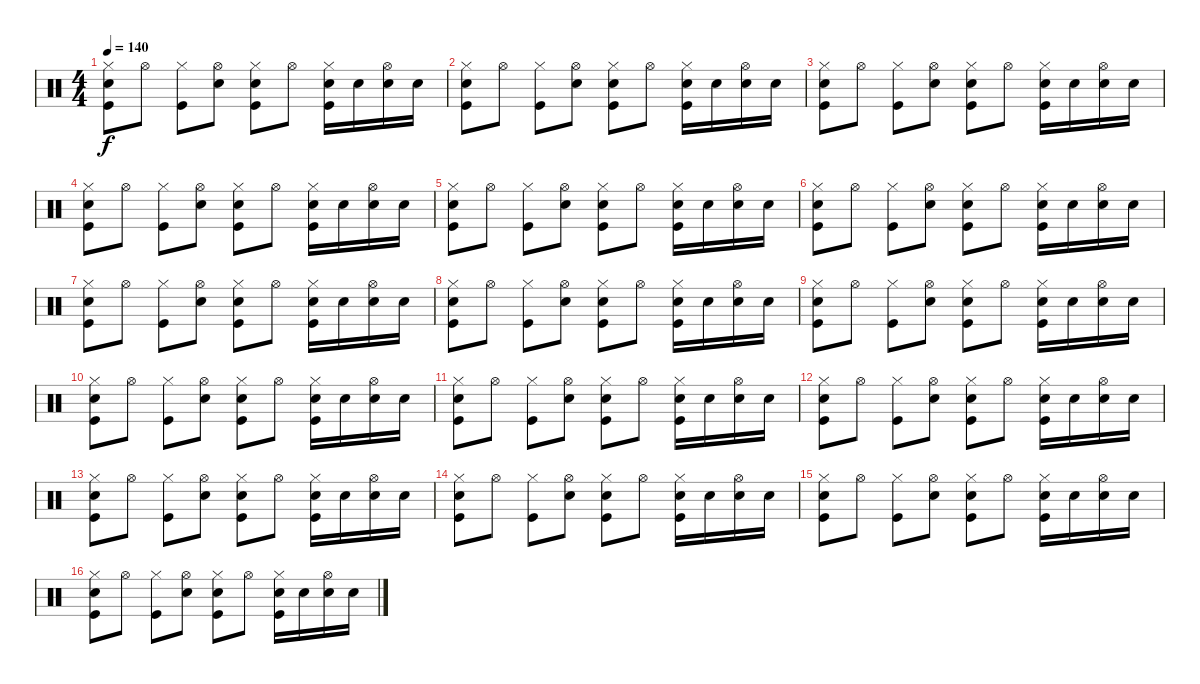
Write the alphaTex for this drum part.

\track "" {instrument percussion}
\staff {score}
\articulation defaults
\ts (4 4)
\tempo 140
\clef neutral
\ks c
("Snare (hit) 2" "Hi-Hat (closed)" "Kick (hit)").8{dy f} "Hi-Hat (open)".8 ("Hi-Hat (closed)" "Kick (hit)").8 ("Snare (hit) 2" "Hi-Hat (open)").8 ("Snare (hit) 2" "Hi-Hat (closed)" "Kick (hit)").8 "Hi-Hat (open)".8 ("Snare (hit) 2" "Hi-Hat (closed)" "Kick (hit)").16 "Snare (hit) 2".16 ("Snare (hit) 2" "Hi-Hat (open)").16 "Snare (hit) 2".16 |
("Snare (hit) 2" "Hi-Hat (closed)" "Kick (hit)").8 "Hi-Hat (open)".8 ("Hi-Hat (closed)" "Kick (hit)").8 ("Snare (hit) 2" "Hi-Hat (open)").8 ("Snare (hit) 2" "Hi-Hat (closed)" "Kick (hit)").8 "Hi-Hat (open)".8 ("Snare (hit) 2" "Hi-Hat (closed)" "Kick (hit)").16 "Snare (hit) 2".16 ("Snare (hit) 2" "Hi-Hat (open)").16 "Snare (hit) 2".16 |
("Snare (hit) 2" "Hi-Hat (closed)" "Kick (hit)").8 "Hi-Hat (open)".8 ("Hi-Hat (closed)" "Kick (hit)").8 ("Snare (hit) 2" "Hi-Hat (open)").8 ("Snare (hit) 2" "Hi-Hat (closed)" "Kick (hit)").8 "Hi-Hat (open)".8 ("Snare (hit) 2" "Hi-Hat (closed)" "Kick (hit)").16 "Snare (hit) 2".16 ("Snare (hit) 2" "Hi-Hat (open)").16 "Snare (hit) 2".16 |
("Snare (hit) 2" "Hi-Hat (closed)" "Kick (hit)").8 "Hi-Hat (open)".8 ("Hi-Hat (closed)" "Kick (hit)").8 ("Snare (hit) 2" "Hi-Hat (open)").8 ("Snare (hit) 2" "Hi-Hat (closed)" "Kick (hit)").8 "Hi-Hat (open)".8 ("Snare (hit) 2" "Hi-Hat (closed)" "Kick (hit)").16 "Snare (hit) 2".16 ("Snare (hit) 2" "Hi-Hat (open)").16 "Snare (hit) 2".16 |
("Snare (hit) 2" "Hi-Hat (closed)" "Kick (hit)").8 "Hi-Hat (open)".8 ("Hi-Hat (closed)" "Kick (hit)").8 ("Snare (hit) 2" "Hi-Hat (open)").8 ("Snare (hit) 2" "Hi-Hat (closed)" "Kick (hit)").8 "Hi-Hat (open)".8 ("Snare (hit) 2" "Hi-Hat (closed)" "Kick (hit)").16 "Snare (hit) 2".16 ("Snare (hit) 2" "Hi-Hat (open)").16 "Snare (hit) 2".16 |
("Snare (hit) 2" "Hi-Hat (closed)" "Kick (hit)").8 "Hi-Hat (open)".8 ("Hi-Hat (closed)" "Kick (hit)").8 ("Snare (hit) 2" "Hi-Hat (open)").8 ("Snare (hit) 2" "Hi-Hat (closed)" "Kick (hit)").8 "Hi-Hat (open)".8 ("Snare (hit) 2" "Hi-Hat (closed)" "Kick (hit)").16 "Snare (hit) 2".16 ("Snare (hit) 2" "Hi-Hat (open)").16 "Snare (hit) 2".16 |
("Hi-Hat (closed)" "Kick (hit)" "Snare (hit) 2").8 "Hi-Hat (open)".8 ("Hi-Hat (closed)" "Kick (hit)").8 ("Hi-Hat (open)" "Snare (hit) 2").8 ("Hi-Hat (closed)" "Kick (hit)" "Snare (hit) 2").8 "Hi-Hat (open)".8 ("Hi-Hat (closed)" "Kick (hit)" "Snare (hit) 2").16 "Snare (hit) 2".16 ("Hi-Hat (open)" "Snare (hit) 2").16 "Snare (hit) 2".16 |
("Hi-Hat (closed)" "Kick (hit)" "Snare (hit) 2").8 "Hi-Hat (open)".8 ("Hi-Hat (closed)" "Kick (hit)").8 ("Hi-Hat (open)" "Snare (hit) 2").8 ("Hi-Hat (closed)" "Kick (hit)" "Snare (hit) 2").8 "Hi-Hat (open)".8 ("Hi-Hat (closed)" "Kick (hit)" "Snare (hit) 2").16 "Snare (hit) 2".16 ("Hi-Hat (open)" "Snare (hit) 2").16 "Snare (hit) 2".16 |
("Snare (hit) 2" "Hi-Hat (closed)" "Kick (hit)").8 "Hi-Hat (open)".8 ("Hi-Hat (closed)" "Kick (hit)").8 ("Snare (hit) 2" "Hi-Hat (open)").8 ("Snare (hit) 2" "Hi-Hat (closed)" "Kick (hit)").8 "Hi-Hat (open)".8 ("Snare (hit) 2" "Hi-Hat (closed)" "Kick (hit)").16 "Snare (hit) 2".16 ("Snare (hit) 2" "Hi-Hat (open)").16 "Snare (hit) 2".16 |
("Snare (hit) 2" "Hi-Hat (closed)" "Kick (hit)").8 "Hi-Hat (open)".8 ("Hi-Hat (closed)" "Kick (hit)").8 ("Snare (hit) 2" "Hi-Hat (open)").8 ("Snare (hit) 2" "Hi-Hat (closed)" "Kick (hit)").8 "Hi-Hat (open)".8 ("Snare (hit) 2" "Hi-Hat (closed)" "Kick (hit)").16 "Snare (hit) 2".16 ("Snare (hit) 2" "Hi-Hat (open)").16 "Snare (hit) 2".16 |
("Snare (hit) 2" "Hi-Hat (closed)" "Kick (hit)").8 "Hi-Hat (open)".8 ("Hi-Hat (closed)" "Kick (hit)").8 ("Snare (hit) 2" "Hi-Hat (open)").8 ("Snare (hit) 2" "Hi-Hat (closed)" "Kick (hit)").8 "Hi-Hat (open)".8 ("Snare (hit) 2" "Hi-Hat (closed)" "Kick (hit)").16 "Snare (hit) 2".16 ("Snare (hit) 2" "Hi-Hat (open)").16 "Snare (hit) 2".16 |
("Snare (hit) 2" "Hi-Hat (closed)" "Kick (hit)").8 "Hi-Hat (open)".8 ("Hi-Hat (closed)" "Kick (hit)").8 ("Snare (hit) 2" "Hi-Hat (open)").8 ("Snare (hit) 2" "Hi-Hat (closed)" "Kick (hit)").8 "Hi-Hat (open)".8 ("Snare (hit) 2" "Hi-Hat (closed)" "Kick (hit)").16 "Snare (hit) 2".16 ("Snare (hit) 2" "Hi-Hat (open)").16 "Snare (hit) 2".16 |
("Snare (hit) 2" "Hi-Hat (closed)" "Kick (hit)").8 "Hi-Hat (open)".8 ("Hi-Hat (closed)" "Kick (hit)").8 ("Snare (hit) 2" "Hi-Hat (open)").8 ("Snare (hit) 2" "Hi-Hat (closed)" "Kick (hit)").8 "Hi-Hat (open)".8 ("Snare (hit) 2" "Hi-Hat (closed)" "Kick (hit)").16 "Snare (hit) 2".16 ("Snare (hit) 2" "Hi-Hat (open)").16 "Snare (hit) 2".16 |
("Snare (hit) 2" "Hi-Hat (closed)" "Kick (hit)").8 "Hi-Hat (open)".8 ("Hi-Hat (closed)" "Kick (hit)").8 ("Snare (hit) 2" "Hi-Hat (open)").8 ("Snare (hit) 2" "Hi-Hat (closed)" "Kick (hit)").8 "Hi-Hat (open)".8 ("Snare (hit) 2" "Hi-Hat (closed)" "Kick (hit)").16 "Snare (hit) 2".16 ("Snare (hit) 2" "Hi-Hat (open)").16 "Snare (hit) 2".16 |
("Snare (hit) 2" "Hi-Hat (closed)" "Kick (hit)").8 "Hi-Hat (open)".8 ("Hi-Hat (closed)" "Kick (hit)").8 ("Snare (hit) 2" "Hi-Hat (open)").8 ("Snare (hit) 2" "Hi-Hat (closed)" "Kick (hit)").8 "Hi-Hat (open)".8 ("Snare (hit) 2" "Hi-Hat (closed)" "Kick (hit)").16 "Snare (hit) 2".16 ("Snare (hit) 2" "Hi-Hat (open)").16 "Snare (hit) 2".16 |
("Snare (hit) 2" "Hi-Hat (closed)" "Kick (hit)").8 "Hi-Hat (open)".8 ("Hi-Hat (closed)" "Kick (hit)").8 ("Snare (hit) 2" "Hi-Hat (open)").8 ("Snare (hit) 2" "Hi-Hat (closed)" "Kick (hit)").8 "Hi-Hat (open)".8 ("Snare (hit) 2" "Hi-Hat (closed)" "Kick (hit)").16 "Snare (hit) 2".16 ("Snare (hit) 2" "Hi-Hat (open)").16 "Snare (hit) 2".16
